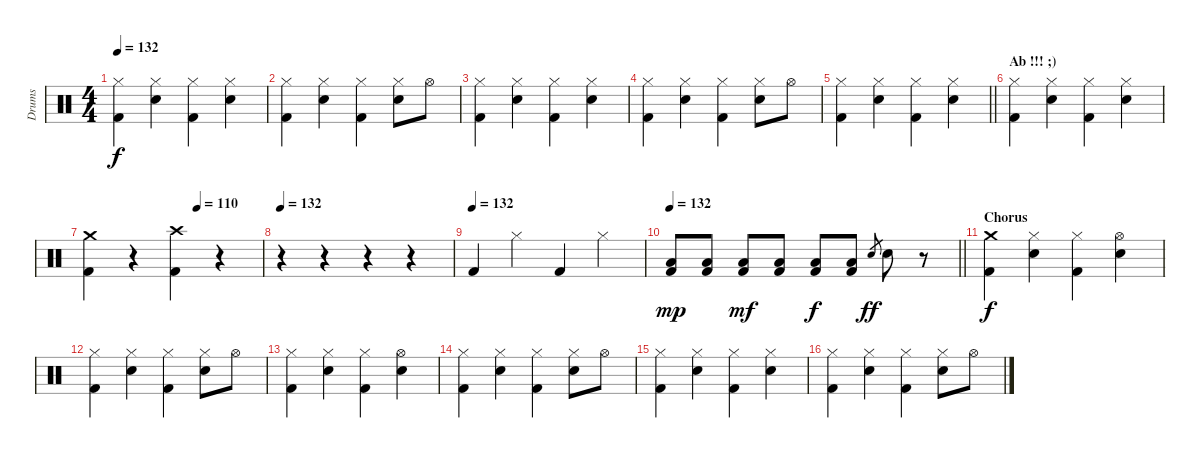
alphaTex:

\track ("Drums" "Drums") {instrument percussion}
\staff {score}
\articulation defaults
\ts (4 4)
\tempo 132
\clef neutral
\ks c
("Hi-Hat (closed)" "Kick (hit) 2").4{dy f} ("Hi-Hat (closed)" "Electric Snare (hit)").4 ("Hi-Hat (closed)" "Kick (hit) 2").4 ("Hi-Hat (closed)" "Electric Snare (hit)").4 |
("Hi-Hat (closed)" "Kick (hit) 2").4 ("Hi-Hat (closed)" "Electric Snare (hit)").4 ("Hi-Hat (closed)" "Kick (hit) 2").4 ("Hi-Hat (closed)" "Electric Snare (hit)").8 "Hi-Hat (open)".8 |
("Hi-Hat (closed)" "Kick (hit) 2").4 ("Hi-Hat (closed)" "Electric Snare (hit)").4 ("Hi-Hat (closed)" "Kick (hit) 2").4 ("Hi-Hat (closed)" "Electric Snare (hit)").4 |
("Hi-Hat (closed)" "Kick (hit) 2").4 ("Hi-Hat (closed)" "Electric Snare (hit)").4 ("Hi-Hat (closed)" "Kick (hit) 2").4 ("Hi-Hat (closed)" "Electric Snare (hit)").8 "Hi-Hat (open)".8 |
\barLineRight lightlight
("Hi-Hat (closed)" "Kick (hit) 2").4 ("Hi-Hat (closed)" "Electric Snare (hit)").4 ("Hi-Hat (closed)" "Kick (hit) 2").4 ("Hi-Hat (closed)" "Electric Snare (hit)").4 |
\section ("" "Ab !!! ;)")
("Hi-Hat (closed)" "Kick (hit) 2").4 ("Hi-Hat (closed)" "Electric Snare (hit)").4 ("Hi-Hat (closed)" "Kick (hit) 2").4 ("Hi-Hat (closed)" "Electric Snare (hit)").4 |
\tempo (110 0.625)
("Crash medium (hit)" "Kick (hit) 2").4 r.4 ("Crash high (hit)" "Kick (hit) 2").4 r.4 |
\tempo 132
r.4 r.4 r.4 r.4 |
\tempo (132)
"Kick (hit) 2".4 "Hi-Hat (closed)".4 "Kick (hit) 2".4 "Hi-Hat (closed)".4 |
\tempo 132
\barLineRight lightlight
("Low Floor Tom (hit)" "Kick (hit) 2").8{dy mp} ("Low Floor Tom (hit)" "Kick (hit) 2").8 ("Low Floor Tom (hit)" "Kick (hit) 2").8{dy mf} ("Low Floor Tom (hit)" "Kick (hit) 2").8 ("Low Floor Tom (hit)" "Kick (hit) 2").8{dy f} ("Low Floor Tom (hit)" "Kick (hit) 2").8 "Electric Snare (hit)".8{gr dy ff} "Electric Snare (hit)".8 r.8 |
\section ("" "Chorus")
("Crash medium (hit)" "Kick (hit) 2").4{dy f} ("Hi-Hat (closed)" "Electric Snare (hit)").4 ("Hi-Hat (closed)" "Kick (hit) 2").4 ("Hi-Hat (open)" "Electric Snare (hit)").4 |
("Hi-Hat (closed)" "Kick (hit) 2").4 ("Hi-Hat (closed)" "Electric Snare (hit)").4 ("Hi-Hat (closed)" "Kick (hit) 2").4 ("Hi-Hat (closed)" "Electric Snare (hit)").8 "Hi-Hat (open)".8 |
("Hi-Hat (closed)" "Kick (hit) 2").4 ("Hi-Hat (closed)" "Electric Snare (hit)").4 ("Hi-Hat (closed)" "Kick (hit) 2").4 ("Hi-Hat (open)" "Electric Snare (hit)").4 |
("Hi-Hat (closed)" "Kick (hit) 2").4 ("Hi-Hat (closed)" "Electric Snare (hit)").4 ("Hi-Hat (closed)" "Kick (hit) 2").4 ("Hi-Hat (closed)" "Electric Snare (hit)").8 "Hi-Hat (open)".8 |
("Hi-Hat (closed)" "Kick (hit) 2").4 ("Hi-Hat (closed)" "Electric Snare (hit)").4 ("Hi-Hat (closed)" "Kick (hit) 2").4 ("Hi-Hat (closed)" "Electric Snare (hit)").4 |
("Hi-Hat (closed)" "Kick (hit) 2").4 ("Hi-Hat (closed)" "Electric Snare (hit)").4 ("Hi-Hat (closed)" "Kick (hit) 2").4 ("Hi-Hat (closed)" "Electric Snare (hit)").8 "Hi-Hat (open)".8
